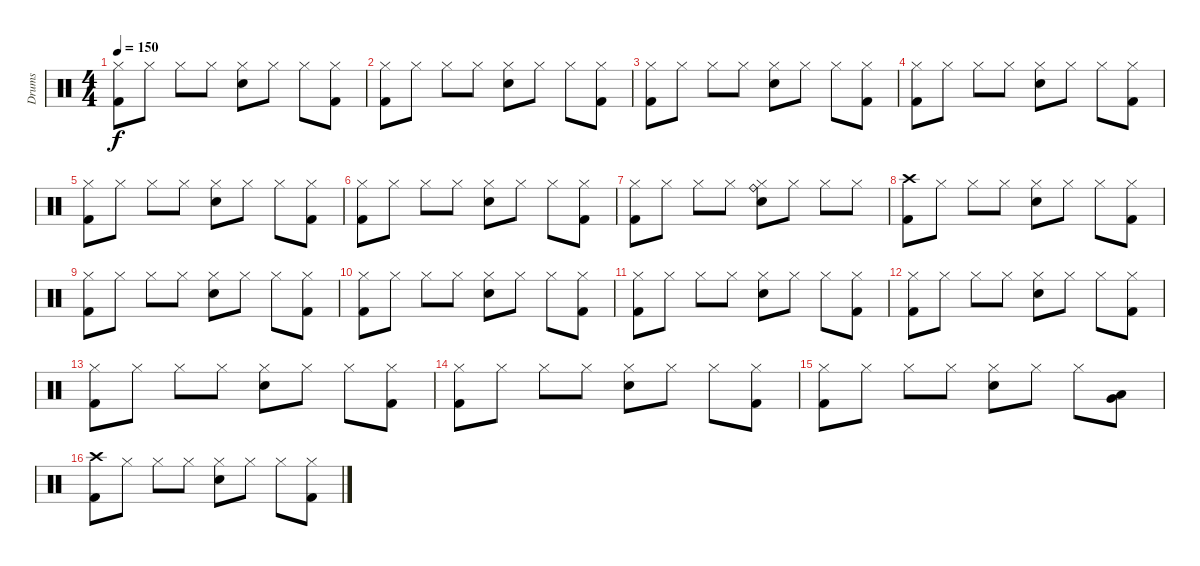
\track ("Drums" "Drums") {instrument percussion}
\staff {score}
\articulation defaults
\ts (4 4)
\tempo 150
\clef neutral
\ks c
("Hi-Hat (closed)" "Kick (hit) 2").8{dy f} "Hi-Hat (closed)".8 "Hi-Hat (closed)".8 "Hi-Hat (closed)".8 ("Hi-Hat (closed)" "Electric Snare (hit)").8 "Hi-Hat (closed)".8 "Hi-Hat (closed)".8 ("Hi-Hat (closed)" "Kick (hit) 2").8 |
("Hi-Hat (closed)" "Kick (hit) 2").8 "Hi-Hat (closed)".8 "Hi-Hat (closed)".8 "Hi-Hat (closed)".8 ("Hi-Hat (closed)" "Electric Snare (hit)").8 "Hi-Hat (closed)".8 "Hi-Hat (closed)".8 ("Hi-Hat (closed)" "Kick (hit) 2").8 |
("Hi-Hat (closed)" "Kick (hit) 2").8 "Hi-Hat (closed)".8 "Hi-Hat (closed)".8 "Hi-Hat (closed)".8 ("Hi-Hat (closed)" "Electric Snare (hit)").8 "Hi-Hat (closed)".8 "Hi-Hat (closed)".8 ("Hi-Hat (closed)" "Kick (hit) 2").8 |
("Hi-Hat (closed)" "Kick (hit) 2").8 "Hi-Hat (closed)".8 "Hi-Hat (closed)".8 "Hi-Hat (closed)".8 ("Hi-Hat (closed)" "Electric Snare (hit)").8 "Hi-Hat (closed)".8 "Hi-Hat (closed)".8 ("Hi-Hat (closed)" "Kick (hit) 2").8 |
("Hi-Hat (closed)" "Kick (hit) 2").8 "Hi-Hat (closed)".8 "Hi-Hat (closed)".8 "Hi-Hat (closed)".8 ("Hi-Hat (closed)" "Electric Snare (hit)").8 "Hi-Hat (closed)".8 "Hi-Hat (closed)".8 ("Hi-Hat (closed)" "Kick (hit) 2").8 |
("Hi-Hat (closed)" "Kick (hit) 2").8 "Hi-Hat (closed)".8 "Hi-Hat (closed)".8 "Hi-Hat (closed)".8 ("Hi-Hat (closed)" "Electric Snare (hit)").8 "Hi-Hat (closed)".8 "Hi-Hat (closed)".8 ("Hi-Hat (closed)" "Kick (hit) 2").8 |
("Hi-Hat (closed)" "Kick (hit) 2").8 "Hi-Hat (closed)".8 "Hi-Hat (closed)".8 "Hi-Hat (closed)".8 ("Hi-Hat (closed)" "Ride (bell)" "Electric Snare (hit)").8 "Hi-Hat (closed)".8 "Hi-Hat (closed)".8 "Hi-Hat (closed)".8 |
("Crash high (hit)" "Kick (hit) 2").8 "Hi-Hat (closed)".8 "Hi-Hat (closed)".8 "Hi-Hat (closed)".8 ("Hi-Hat (closed)" "Electric Snare (hit)").8 "Hi-Hat (closed)".8 "Hi-Hat (closed)".8 ("Hi-Hat (closed)" "Kick (hit) 2").8 |
("Hi-Hat (closed)" "Kick (hit) 2").8 "Hi-Hat (closed)".8 "Hi-Hat (closed)".8 "Hi-Hat (closed)".8 ("Hi-Hat (closed)" "Electric Snare (hit)").8 "Hi-Hat (closed)".8 "Hi-Hat (closed)".8 ("Hi-Hat (closed)" "Kick (hit) 2").8 |
("Hi-Hat (closed)" "Kick (hit) 2").8 "Hi-Hat (closed)".8 "Hi-Hat (closed)".8 "Hi-Hat (closed)".8 ("Hi-Hat (closed)" "Electric Snare (hit)").8 "Hi-Hat (closed)".8 "Hi-Hat (closed)".8 ("Hi-Hat (closed)" "Kick (hit) 2").8 |
("Hi-Hat (closed)" "Kick (hit) 2").8 "Hi-Hat (closed)".8 "Hi-Hat (closed)".8 "Hi-Hat (closed)".8 ("Hi-Hat (closed)" "Electric Snare (hit)").8 "Hi-Hat (closed)".8 "Hi-Hat (closed)".8 ("Hi-Hat (closed)" "Kick (hit) 2").8 |
("Hi-Hat (closed)" "Kick (hit) 2").8 "Hi-Hat (closed)".8 "Hi-Hat (closed)".8 "Hi-Hat (closed)".8 ("Hi-Hat (closed)" "Electric Snare (hit)").8 "Hi-Hat (closed)".8 "Hi-Hat (closed)".8 ("Hi-Hat (closed)" "Kick (hit) 2").8 |
("Hi-Hat (closed)" "Kick (hit) 2").8 "Hi-Hat (closed)".8 "Hi-Hat (closed)".8 "Hi-Hat (closed)".8 ("Hi-Hat (closed)" "Electric Snare (hit)").8 "Hi-Hat (closed)".8 "Hi-Hat (closed)".8 ("Hi-Hat (closed)" "Kick (hit) 2").8 |
("Hi-Hat (closed)" "Kick (hit) 2").8 "Hi-Hat (closed)".8 "Hi-Hat (closed)".8 "Hi-Hat (closed)".8 ("Hi-Hat (closed)" "Electric Snare (hit)").8 "Hi-Hat (closed)".8 "Hi-Hat (closed)".8 ("Hi-Hat (closed)" "Kick (hit) 2").8 |
("Hi-Hat (closed)" "Kick (hit) 2").8 "Hi-Hat (closed)".8 "Hi-Hat (closed)".8 "Hi-Hat (closed)".8 ("Hi-Hat (closed)" "Electric Snare (hit)").8 "Hi-Hat (closed)".8 "Hi-Hat (closed)".8 ("Very Low Tom (hit)" "Low Floor Tom (hit)").8 |
("Crash high (hit)" "Kick (hit) 2").8{volume 12} "Hi-Hat (closed)".8 "Hi-Hat (closed)".8 "Hi-Hat (closed)".8 ("Hi-Hat (closed)" "Electric Snare (hit)").8 "Hi-Hat (closed)".8 "Hi-Hat (closed)".8 ("Hi-Hat (closed)" "Kick (hit) 2").8
